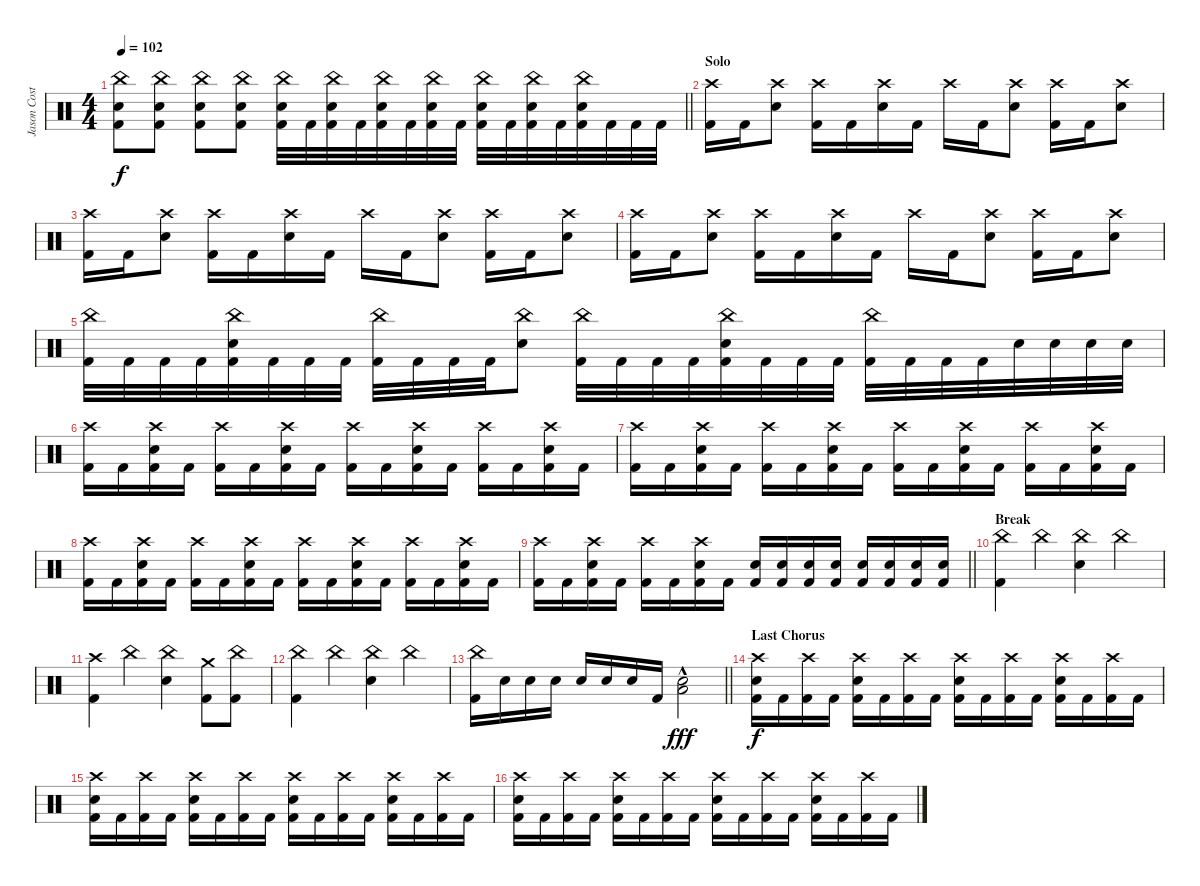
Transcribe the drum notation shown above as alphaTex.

\track ("Jason Costa" "Jason Cost") {instrument percussion}
\staff {score}
\articulation defaults
\ts (4 4)
\tempo 102
\clef neutral
\barLineRight lightlight
\ks c
("China (hit)" "Snare (hit) 2" "Kick (hit) 2").8{dy f} ("China (hit)" "Snare (hit) 2" "Kick (hit) 2").8 ("China (hit)" "Snare (hit) 2" "Kick (hit) 2").8 ("China (hit)" "Snare (hit) 2" "Kick (hit) 2").8 ("China (hit)" "Snare (hit) 2" "Kick (hit) 2").32 "Kick (hit) 2".32 ("China (hit)" "Snare (hit) 2" "Kick (hit) 2").32 "Kick (hit) 2".32 ("China (hit)" "Snare (hit) 2" "Kick (hit) 2").32 "Kick (hit) 2".32 ("China (hit)" "Snare (hit) 2" "Kick (hit) 2").32 "Kick (hit) 2".32 ("China (hit)" "Snare (hit) 2" "Kick (hit) 2").32 "Kick (hit) 2".32 ("China (hit)" "Snare (hit) 2" "Kick (hit) 2").32 "Kick (hit) 2".32 ("China (hit)" "Snare (hit) 2" "Kick (hit) 2").32 "Kick (hit) 2".32 "Kick (hit) 2".32 "Kick (hit) 2".32 |
\section ("" "Solo")
("Crash high (hit)" "Kick (hit) 2").16 "Kick (hit) 2".16 ("Crash high (hit)" "Snare (hit) 2").8 ("Crash high (hit)" "Kick (hit) 2").16 "Kick (hit) 2".16 ("Crash high (hit)" "Snare (hit) 2").16 "Kick (hit) 2".16 "Crash high (hit)".16 "Kick (hit) 2".16 ("Crash high (hit)" "Snare (hit) 2").8 ("Crash high (hit)" "Kick (hit) 2").16 "Kick (hit) 2".16 ("Crash high (hit)" "Snare (hit) 2").8 |
("Crash high (hit)" "Kick (hit) 2").16 "Kick (hit) 2".16 ("Crash high (hit)" "Snare (hit) 2").8 ("Crash high (hit)" "Kick (hit) 2").16 "Kick (hit) 2".16 ("Crash high (hit)" "Snare (hit) 2").16 "Kick (hit) 2".16 "Crash high (hit)".16 "Kick (hit) 2".16 ("Crash high (hit)" "Snare (hit) 2").8 ("Crash high (hit)" "Kick (hit) 2").16 "Kick (hit) 2".16 ("Crash high (hit)" "Snare (hit) 2").8 |
("Crash high (hit)" "Kick (hit) 2").16 "Kick (hit) 2".16 ("Crash high (hit)" "Snare (hit) 2").8 ("Crash high (hit)" "Kick (hit) 2").16 "Kick (hit) 2".16 ("Crash high (hit)" "Snare (hit) 2").16 "Kick (hit) 2".16 "Crash high (hit)".16 "Kick (hit) 2".16 ("Crash high (hit)" "Snare (hit) 2").8 ("Crash high (hit)" "Kick (hit) 2").16 "Kick (hit) 2".16 ("Crash high (hit)" "Snare (hit) 2").8 |
("China (hit)" "Kick (hit) 2").32 "Kick (hit) 2".32 "Kick (hit) 2".32 "Kick (hit) 2".32 ("China (hit)" "Snare (hit) 2" "Kick (hit) 2").32 "Kick (hit) 2".32 "Kick (hit) 2".32 "Kick (hit) 2".32 ("China (hit)" "Kick (hit) 2").32 "Kick (hit) 2".32 "Kick (hit) 2".32 "Kick (hit) 2".32 ("China (hit)" "Snare (hit) 2").8 ("China (hit)" "Kick (hit) 2").32 "Kick (hit) 2".32 "Kick (hit) 2".32 "Kick (hit) 2".32 ("China (hit)" "Snare (hit) 2" "Kick (hit) 2").32 "Kick (hit) 2".32 "Kick (hit) 2".32 "Kick (hit) 2".32 ("China (hit)" "Kick (hit) 2").32 "Kick (hit) 2".32 "Kick (hit) 2".32 "Kick (hit) 2".32 "Snare (hit) 2".32 "Snare (hit) 2".32 "Snare (hit) 2".32 "Snare (hit) 2".32 |
("Crash high (hit)" "Kick (hit) 2").16 "Kick (hit) 2".16 ("Crash high (hit)" "Snare (hit) 2" "Kick (hit) 2").16 "Kick (hit) 2".16 ("Crash high (hit)" "Kick (hit) 2").16 "Kick (hit) 2".16 ("Crash high (hit)" "Snare (hit) 2" "Kick (hit) 2").16 "Kick (hit) 2".16 ("Crash high (hit)" "Kick (hit) 2").16 "Kick (hit) 2".16 ("Crash high (hit)" "Snare (hit) 2" "Kick (hit) 2").16 "Kick (hit) 2".16 ("Crash high (hit)" "Kick (hit) 2").16 "Kick (hit) 2".16 ("Crash high (hit)" "Snare (hit) 2" "Kick (hit) 2").16 "Kick (hit) 2".16 |
("Crash high (hit)" "Kick (hit) 2").16 "Kick (hit) 2".16 ("Crash high (hit)" "Snare (hit) 2" "Kick (hit) 2").16 "Kick (hit) 2".16 ("Crash high (hit)" "Kick (hit) 2").16 "Kick (hit) 2".16 ("Crash high (hit)" "Snare (hit) 2" "Kick (hit) 2").16 "Kick (hit) 2".16 ("Crash high (hit)" "Kick (hit) 2").16 "Kick (hit) 2".16 ("Crash high (hit)" "Snare (hit) 2" "Kick (hit) 2").16 "Kick (hit) 2".16 ("Crash high (hit)" "Kick (hit) 2").16 "Kick (hit) 2".16 ("Crash high (hit)" "Snare (hit) 2" "Kick (hit) 2").16 "Kick (hit) 2".16 |
("Crash high (hit)" "Kick (hit) 2").16 "Kick (hit) 2".16 ("Crash high (hit)" "Snare (hit) 2" "Kick (hit) 2").16 "Kick (hit) 2".16 ("Crash high (hit)" "Kick (hit) 2").16 "Kick (hit) 2".16 ("Crash high (hit)" "Snare (hit) 2" "Kick (hit) 2").16 "Kick (hit) 2".16 ("Crash high (hit)" "Kick (hit) 2").16 "Kick (hit) 2".16 ("Crash high (hit)" "Snare (hit) 2" "Kick (hit) 2").16 "Kick (hit) 2".16 ("Crash high (hit)" "Kick (hit) 2").16 "Kick (hit) 2".16 ("Crash high (hit)" "Snare (hit) 2" "Kick (hit) 2").16 "Kick (hit) 2".16 |
\barLineRight lightlight
("Crash high (hit)" "Kick (hit) 2").16 "Kick (hit) 2".16 ("Crash high (hit)" "Snare (hit) 2" "Kick (hit) 2").16 "Kick (hit) 2".16 ("Crash high (hit)" "Kick (hit) 2").16 "Kick (hit) 2".16 ("Crash high (hit)" "Snare (hit) 2" "Kick (hit) 2").16 "Kick (hit) 2".16 ("Snare (hit) 2" "Kick (hit) 2").16 ("Snare (hit) 2" "Kick (hit) 2").16 ("Snare (hit) 2" "Kick (hit) 2").16 ("Snare (hit) 2" "Kick (hit) 2").16 ("Snare (hit) 2" "Kick (hit) 2").16 ("Snare (hit) 2" "Kick (hit) 2").16 ("Snare (hit) 2" "Kick (hit) 2").16 ("Snare (hit) 2" "Kick (hit) 2").16 |
\section ("" "Break")
("China (hit)" "Kick (hit) 2").4 "China (hit)".4 ("China (hit)" "Snare (hit) 2").4 "China (hit)".4 |
("Crash high (hit)" "Kick (hit) 2").4 "China (hit)".4 ("China (hit)" "Snare (hit) 2").4 ("Crash medium (hit)" "Kick (hit) 2").8 ("China (hit)" "Kick (hit) 2").8 |
("China (hit)" "Kick (hit) 2").4 "China (hit)".4 ("China (hit)" "Snare (hit) 2").4 "China (hit)".4 |
\barLineRight lightlight
("China (hit)" "Kick (hit) 2").16 "Snare (hit) 2".16 "Snare (hit) 2".16 "Snare (hit) 2".16 "Snare (hit) 2".16 "Snare (hit) 2".16 "Snare (hit) 2".16 "Kick (hit) 2".16 ("Snare (hit) 2" "Low Floor Tom (hit)"{hac}).2{dy fff} |
\section ("" "Last Chorus")
("Crash high (hit)" "Snare (hit) 2" "Kick (hit) 2").16{dy f} "Kick (hit) 2".16 ("Crash high (hit)" "Kick (hit) 2").16 "Kick (hit) 2".16 ("Crash high (hit)" "Snare (hit) 2" "Kick (hit) 2").16 "Kick (hit) 2".16 ("Crash high (hit)" "Kick (hit) 2").16 "Kick (hit) 2".16 ("Crash high (hit)" "Snare (hit) 2" "Kick (hit) 2").16 "Kick (hit) 2".16 ("Crash high (hit)" "Kick (hit) 2").16 "Kick (hit) 2".16 ("Crash high (hit)" "Snare (hit) 2" "Kick (hit) 2").16 "Kick (hit) 2".16 ("Crash high (hit)" "Kick (hit) 2").16 "Kick (hit) 2".16 |
("Crash high (hit)" "Snare (hit) 2" "Kick (hit) 2").16 "Kick (hit) 2".16 ("Crash high (hit)" "Kick (hit) 2").16 "Kick (hit) 2".16 ("Crash high (hit)" "Snare (hit) 2" "Kick (hit) 2").16 "Kick (hit) 2".16 ("Crash high (hit)" "Kick (hit) 2").16 "Kick (hit) 2".16 ("Crash high (hit)" "Snare (hit) 2" "Kick (hit) 2").16 "Kick (hit) 2".16 ("Crash high (hit)" "Kick (hit) 2").16 "Kick (hit) 2".16 ("Crash high (hit)" "Snare (hit) 2" "Kick (hit) 2").16 "Kick (hit) 2".16 ("Crash high (hit)" "Kick (hit) 2").16 "Kick (hit) 2".16 |
("Crash high (hit)" "Snare (hit) 2" "Kick (hit) 2").16 "Kick (hit) 2".16 ("Crash high (hit)" "Kick (hit) 2").16 "Kick (hit) 2".16 ("Crash high (hit)" "Snare (hit) 2" "Kick (hit) 2").16 "Kick (hit) 2".16 ("Crash high (hit)" "Kick (hit) 2").16 "Kick (hit) 2".16 ("Crash high (hit)" "Snare (hit) 2" "Kick (hit) 2").16 "Kick (hit) 2".16 ("Crash high (hit)" "Kick (hit) 2").16 "Kick (hit) 2".16 ("Crash high (hit)" "Snare (hit) 2" "Kick (hit) 2").16 "Kick (hit) 2".16 ("Crash high (hit)" "Kick (hit) 2").16 "Kick (hit) 2".16
